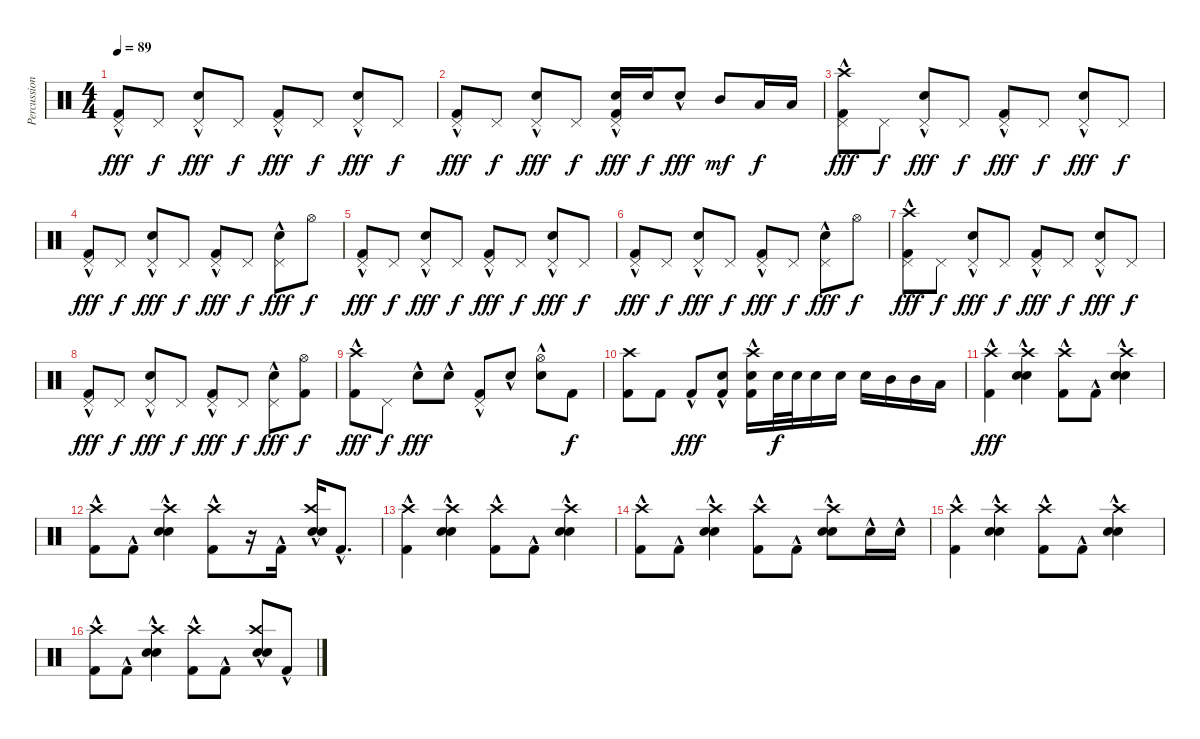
\track ("Percussion" "Percussion") {instrument percussion}
\staff {score}
\articulation defaults
\ts (4 4)
\tempo 89
\clef neutral
\ks c
("Pedal Hi-Hat (hit)" "Kick (hit) 2"{hac}).8{dy fff} "Pedal Hi-Hat (hit)".8{dy f} ("Pedal Hi-Hat (hit)" "Electric Snare (hit)"{hac}).8{dy fff} "Pedal Hi-Hat (hit)".8{dy f} ("Pedal Hi-Hat (hit)" "Kick (hit) 2"{hac}).8{dy fff} "Pedal Hi-Hat (hit)".8{dy f} ("Pedal Hi-Hat (hit)" "Electric Snare (hit)"{hac}).8{dy fff} "Pedal Hi-Hat (hit)".8{dy f} |
("Pedal Hi-Hat (hit)" "Kick (hit) 2"{hac}).8{dy fff} "Pedal Hi-Hat (hit)".8{dy f} ("Pedal Hi-Hat (hit)" "Electric Snare (hit)"{hac}).8{dy fff} "Pedal Hi-Hat (hit)".8{dy f} ("Electric Snare (hit)" "Pedal Hi-Hat (hit)" "Kick (hit) 2"{hac}).16{dy fff} "Electric Snare (hit)".16{dy f} "Electric Snare (hit)"{hac}.8{dy fff} "Mid Tom (hit)".8{dy mf} "Low Tom (hit)".16{dy f} "Low Tom (hit)".16 |
("Crash high (hit)" "Pedal Hi-Hat (hit)" "Kick (hit) 2"{hac}).8{dy fff} "Pedal Hi-Hat (hit)".8{dy f} ("Pedal Hi-Hat (hit)" "Electric Snare (hit)"{hac}).8{dy fff} "Pedal Hi-Hat (hit)".8{dy f} ("Pedal Hi-Hat (hit)" "Kick (hit) 2"{hac}).8{dy fff} "Pedal Hi-Hat (hit)".8{dy f} ("Pedal Hi-Hat (hit)" "Electric Snare (hit)"{hac}).8{dy fff} "Pedal Hi-Hat (hit)".8{dy f} |
("Pedal Hi-Hat (hit)" "Kick (hit) 2"{hac}).8{dy fff} "Pedal Hi-Hat (hit)".8{dy f} ("Pedal Hi-Hat (hit)" "Electric Snare (hit)"{hac}).8{dy fff} "Pedal Hi-Hat (hit)".8{dy f} ("Pedal Hi-Hat (hit)" "Kick (hit) 2"{hac}).8{dy fff} "Pedal Hi-Hat (hit)".8{dy f} ("Pedal Hi-Hat (hit)" "Electric Snare (hit)"{hac}).8{dy fff} "Hi-Hat (open)".8{dy f} |
("Pedal Hi-Hat (hit)" "Kick (hit) 2"{hac}).8{dy fff} "Pedal Hi-Hat (hit)".8{dy f} ("Pedal Hi-Hat (hit)" "Electric Snare (hit)"{hac}).8{dy fff} "Pedal Hi-Hat (hit)".8{dy f} ("Pedal Hi-Hat (hit)" "Kick (hit) 2"{hac}).8{dy fff} "Pedal Hi-Hat (hit)".8{dy f} ("Pedal Hi-Hat (hit)" "Electric Snare (hit)"{hac}).8{dy fff} "Pedal Hi-Hat (hit)".8{dy f} |
("Pedal Hi-Hat (hit)" "Kick (hit) 2"{hac}).8{dy fff} "Pedal Hi-Hat (hit)".8{dy f} ("Pedal Hi-Hat (hit)" "Electric Snare (hit)"{hac}).8{dy fff} "Pedal Hi-Hat (hit)".8{dy f} ("Pedal Hi-Hat (hit)" "Kick (hit) 2"{hac}).8{dy fff} "Pedal Hi-Hat (hit)".8{dy f} ("Pedal Hi-Hat (hit)" "Electric Snare (hit)"{hac}).8{dy fff} "Hi-Hat (open)".8{dy f} |
("Crash high (hit)" "Pedal Hi-Hat (hit)" "Kick (hit) 2"{hac}).8{dy fff} "Pedal Hi-Hat (hit)".8{dy f} ("Pedal Hi-Hat (hit)" "Electric Snare (hit)"{hac}).8{dy fff} "Pedal Hi-Hat (hit)".8{dy f} ("Pedal Hi-Hat (hit)" "Kick (hit) 2"{hac}).8{dy fff} "Pedal Hi-Hat (hit)".8{dy f} ("Pedal Hi-Hat (hit)" "Electric Snare (hit)"{hac}).8{dy fff} "Pedal Hi-Hat (hit)".8{dy f} |
("Pedal Hi-Hat (hit)" "Kick (hit) 2"{hac}).8{dy fff} "Pedal Hi-Hat (hit)".8{dy f} ("Pedal Hi-Hat (hit)" "Electric Snare (hit)"{hac}).8{dy fff} "Pedal Hi-Hat (hit)".8{dy f} ("Pedal Hi-Hat (hit)" "Kick (hit) 2"{hac}).8{dy fff} "Pedal Hi-Hat (hit)".8{dy f} ("Pedal Hi-Hat (hit)" "Electric Snare (hit)"{hac}).8{dy fff} ("Hi-Hat (open)" "Kick (hit) 2").8{dy f} |
("Crash high (hit)"{hac} "Kick (hit) 2"{hac}).8{dy fff} "Pedal Hi-Hat (hit)".8{dy f} "Electric Snare (hit)"{hac}.8{dy fff} "Electric Snare (hit)"{hac}.8 ("Pedal Hi-Hat (hit)"{hac} "Kick (hit) 2").8 "Electric Snare (hit)"{hac}.8 ("Hi-Hat (open)" "Electric Snare (hit)"{hac}).8 "Kick (hit) 2".8{dy f} |
("Crash high (hit)" "Kick (hit) 2").8 "Kick (hit) 2".8 "Kick (hit) 2"{hac}.8{dy fff} ("Electric Snare (hit)" "Kick (hit) 2"{hac}).8 ("Crash high (hit)" "Electric Snare (hit)" "Kick (hit) 2"{hac}).16 "Electric Snare (hit)".32{dy f} "Electric Snare (hit)".32 "Electric Snare (hit)".16 "Electric Snare (hit)".16 "Electric Snare (hit)".16 "Mid Tom (hit)".16 "Mid Tom (hit)".16 "Low Tom (hit)".16 |
("Crash high (hit)" "Kick (hit) 2"{hac}).4{dy fff} ("Crash high (hit)" "Snare (hit) 2" "Electric Snare (hit)"{hac}).4 ("Crash high (hit)" "Kick (hit) 2"{hac}).8 "Kick (hit) 2"{hac}.8 ("Crash high (hit)" "Snare (hit) 2" "Electric Snare (hit)"{hac}).4 |
("Crash high (hit)" "Kick (hit) 2"{hac}).8 "Kick (hit) 2"{hac}.8 ("Crash high (hit)" "Snare (hit) 2" "Electric Snare (hit)"{hac}).4 ("Crash high (hit)" "Kick (hit) 2"{hac}).8 r.16 "Kick (hit) 2"{hac}.16 ("Crash high (hit)" "Snare (hit) 2" "Electric Snare (hit)"{hac}).16 "Kick (hit) 2"{hac}.8{d} |
("Crash high (hit)" "Kick (hit) 2"{hac}).4 ("Crash high (hit)" "Snare (hit) 2" "Electric Snare (hit)"{hac}).4 ("Crash high (hit)" "Kick (hit) 2"{hac}).8 "Kick (hit) 2"{hac}.8 ("Crash high (hit)" "Snare (hit) 2" "Electric Snare (hit)"{hac}).4 |
("Crash high (hit)" "Kick (hit) 2"{hac}).8 "Kick (hit) 2"{hac}.8 ("Crash high (hit)" "Snare (hit) 2" "Electric Snare (hit)"{hac}).4 ("Crash high (hit)" "Kick (hit) 2"{hac}).8 "Kick (hit) 2"{hac}.8 ("Crash high (hit)" "Snare (hit) 2" "Electric Snare (hit)"{hac}).8 "Electric Snare (hit)"{hac}.16 "Electric Snare (hit)"{hac}.16 |
("Crash high (hit)" "Kick (hit) 2"{hac}).4 ("Crash high (hit)" "Snare (hit) 2" "Electric Snare (hit)"{hac}).4 ("Crash high (hit)" "Kick (hit) 2"{hac}).8 "Kick (hit) 2"{hac}.8 ("Crash high (hit)" "Snare (hit) 2" "Electric Snare (hit)"{hac}).4 |
("Crash high (hit)" "Kick (hit) 2"{hac}).8 "Kick (hit) 2"{hac}.8 ("Crash high (hit)" "Snare (hit) 2" "Electric Snare (hit)"{hac}).4 ("Crash high (hit)" "Kick (hit) 2"{hac}).8 "Kick (hit) 2"{hac}.8 ("Crash high (hit)" "Snare (hit) 2" "Electric Snare (hit)"{hac}).8 "Kick (hit) 2"{hac}.8
